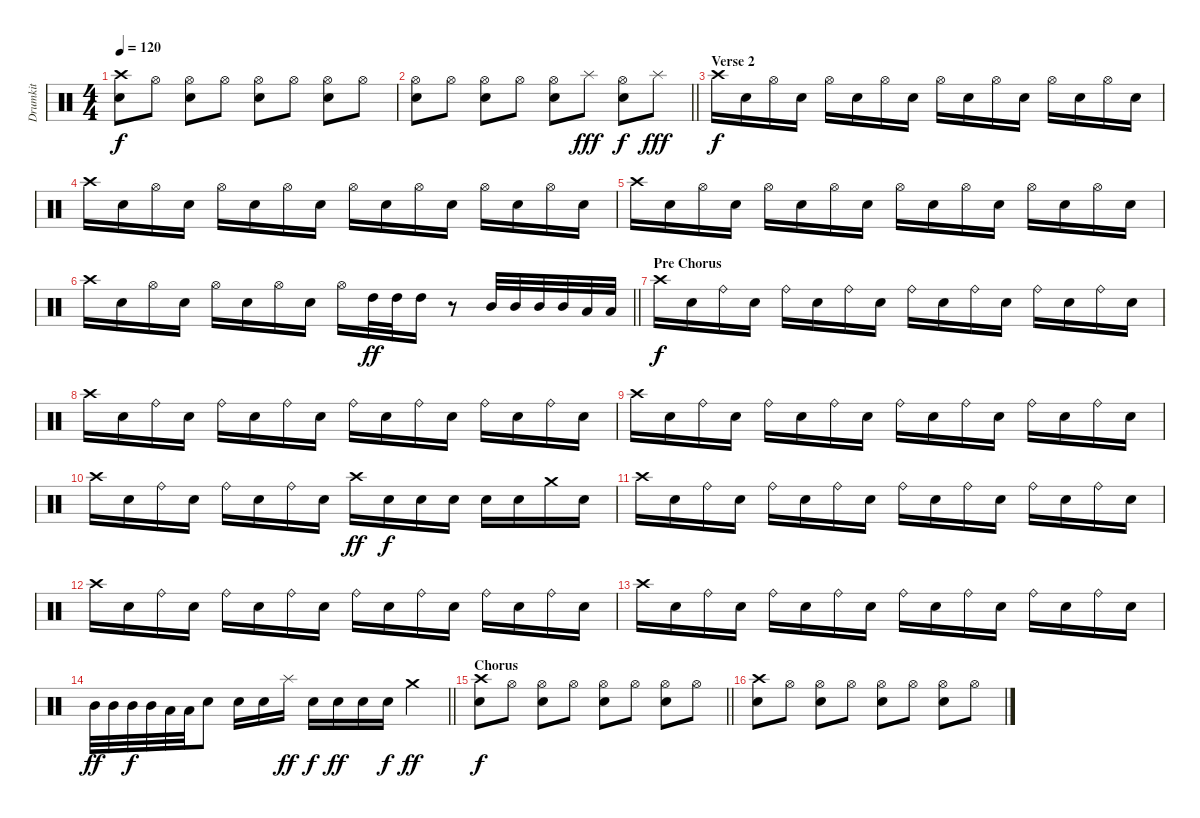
\track ("Drumkit" "Drumkit") {instrument percussion}
\staff {score}
\articulation defaults
\ts (4 4)
\tempo 120
\clef neutral
\ks c
("Crash high (hit)" "Electric Snare (hit)").8{dy f} "Hi-Hat (open)".8 ("Hi-Hat (open)" "Electric Snare (hit)").8 "Hi-Hat (open)".8 ("Hi-Hat (open)" "Electric Snare (hit)").8 "Hi-Hat (open)".8 ("Hi-Hat (open)" "Electric Snare (hit)").8 "Hi-Hat (open)".8 |
\barLineRight lightlight
("Hi-Hat (open)" "Electric Snare (hit)").8 "Hi-Hat (open)".8 ("Hi-Hat (open)" "Electric Snare (hit)").8 "Hi-Hat (open)".8 ("Hi-Hat (open)" "Electric Snare (hit)").8 "Splash (hit)".8{dy fff} ("Hi-Hat (open)" "Electric Snare (hit)").8{dy f} "Splash (hit)".8{dy fff} |
\section ("" "Verse 2")
"Crash high (hit)".16{dy f} "Electric Snare (hit)".16 "Hi-Hat (open)".16 "Electric Snare (hit)".16 "Hi-Hat (open)".16 "Electric Snare (hit)".16 "Hi-Hat (open)".16 "Electric Snare (hit)".16 "Hi-Hat (open)".16 "Electric Snare (hit)".16 "Hi-Hat (open)".16 "Electric Snare (hit)".16 "Hi-Hat (open)".16 "Electric Snare (hit)".16 "Hi-Hat (open)".16 "Electric Snare (hit)".16 |
"Crash high (hit)".16 "Electric Snare (hit)".16 "Hi-Hat (open)".16 "Electric Snare (hit)".16 "Hi-Hat (open)".16 "Electric Snare (hit)".16 "Hi-Hat (open)".16 "Electric Snare (hit)".16 "Hi-Hat (open)".16 "Electric Snare (hit)".16 "Hi-Hat (open)".16 "Electric Snare (hit)".16 "Hi-Hat (open)".16 "Electric Snare (hit)".16 "Hi-Hat (open)".16 "Electric Snare (hit)".16 |
"Crash high (hit)".16 "Electric Snare (hit)".16 "Hi-Hat (open)".16 "Electric Snare (hit)".16 "Hi-Hat (open)".16 "Electric Snare (hit)".16 "Hi-Hat (open)".16 "Electric Snare (hit)".16 "Hi-Hat (open)".16 "Electric Snare (hit)".16 "Hi-Hat (open)".16 "Electric Snare (hit)".16 "Hi-Hat (open)".16 "Electric Snare (hit)".16 "Hi-Hat (open)".16 "Electric Snare (hit)".16 |
\barLineRight lightlight "Crash high (hit)".16 "Electric Snare (hit)".16 "Hi-Hat (open)".16 "Electric Snare (hit)".16 "Hi-Hat (open)".16 "Electric Snare (hit)".16 "Hi-Hat (open)".16 "Electric Snare (hit)".16 "Hi-Hat (open)".16 "High Tom (hit)".32{dy ff} "High Tom (hit)".32 "High Tom (hit)".16
r.8 "Mid Tom (hit)".32 "Mid Tom (hit)".32 "Mid Tom (hit)".32 "Mid Tom (hit)".32 "Low Tom (hit)".32 "Low Tom (hit)".32 |
\section ("" "Pre Chorus")
"Crash high (hit)".16{dy f} "Electric Snare (hit)".16 "Ride (bell)".16 "Electric Snare (hit)".16 "Ride (bell)".16 "Electric Snare (hit)".16 "Ride (bell)".16 "Electric Snare (hit)".16 "Ride (bell)".16 "Electric Snare (hit)".16 "Ride (bell)".16 "Electric Snare (hit)".16 "Ride (bell)".16 "Electric Snare (hit)".16 "Ride (bell)".16 "Electric Snare (hit)".16 |
"Crash high (hit)".16 "Electric Snare (hit)".16 "Ride (bell)".16 "Electric Snare (hit)".16 "Ride (bell)".16 "Electric Snare (hit)".16 "Ride (bell)".16 "Electric Snare (hit)".16 "Ride (bell)".16 "Electric Snare (hit)".16 "Ride (bell)".16 "Electric Snare (hit)".16 "Ride (bell)".16 "Electric Snare (hit)".16 "Ride (bell)".16 "Electric Snare (hit)".16 |
"Crash high (hit)".16 "Electric Snare (hit)".16 "Ride (bell)".16 "Electric Snare (hit)".16 "Ride (bell)".16 "Electric Snare (hit)".16 "Ride (bell)".16 "Electric Snare (hit)".16 "Ride (bell)".16 "Electric Snare (hit)".16 "Ride (bell)".16 "Electric Snare (hit)".16 "Ride (bell)".16 "Electric Snare (hit)".16 "Ride (bell)".16 "Electric Snare (hit)".16 |
"Crash high (hit)".16 "Electric Snare (hit)".16 "Ride (bell)".16 "Electric Snare (hit)".16 "Ride (bell)".16 "Electric Snare (hit)".16 "Ride (bell)".16 "Electric Snare (hit)".16 "Crash high (hit)".16{dy ff} "Electric Snare (hit)".16{dy f} "Electric Snare (hit)".16 "Electric Snare (hit)".16 "Electric Snare (hit)".16 "Electric Snare (hit)".16 "Crash medium (hit)".16 "Electric Snare (hit)".16 |
"Crash high (hit)".16 "Electric Snare (hit)".16 "Ride (bell)".16 "Electric Snare (hit)".16 "Ride (bell)".16 "Electric Snare (hit)".16 "Ride (bell)".16 "Electric Snare (hit)".16 "Ride (bell)".16 "Electric Snare (hit)".16 "Ride (bell)".16 "Electric Snare (hit)".16 "Ride (bell)".16 "Electric Snare (hit)".16 "Ride (bell)".16 "Electric Snare (hit)".16 |
"Crash high (hit)".16 "Electric Snare (hit)".16 "Ride (bell)".16 "Electric Snare (hit)".16 "Ride (bell)".16 "Electric Snare (hit)".16 "Ride (bell)".16 "Electric Snare (hit)".16 "Ride (bell)".16 "Electric Snare (hit)".16 "Ride (bell)".16 "Electric Snare (hit)".16 "Ride (bell)".16 "Electric Snare (hit)".16 "Ride (bell)".16 "Electric Snare (hit)".16 |
"Crash high (hit)".16 "Electric Snare (hit)".16 "Ride (bell)".16 "Electric Snare (hit)".16 "Ride (bell)".16 "Electric Snare (hit)".16 "Ride (bell)".16 "Electric Snare (hit)".16 "Ride (bell)".16 "Electric Snare (hit)".16 "Ride (bell)".16 "Electric Snare (hit)".16 "Ride (bell)".16 "Electric Snare (hit)".16 "Ride (bell)".16 "Electric Snare (hit)".16 |
\barLineRight lightlight "Mid Tom (hit)".32{dy ff} "Mid Tom (hit)".32 "Mid Tom (hit)".32{dy f} "Mid Tom (hit)".32 "Low Tom (hit)".32 "Low Tom (hit)".32 "Electric Snare (hit)".8 "Electric Snare (hit)".16 "Electric Snare (hit)".16 "Splash (hit)".16{dy ff} "Electric Snare (hit)".16{dy f} "Electric Snare (hit)".16{dy ff} "Electric Snare (hit)".16 "Electric Snare (hit)".16{dy f} "Crash medium (hit)".4{dy ff}
|
\section ("" "Chorus")
\barLineRight lightlight
("Crash high (hit)" "Electric Snare (hit)").8{dy f} "Hi-Hat (open)".8 ("Hi-Hat (open)" "Electric Snare (hit)").8 "Hi-Hat (open)".8 ("Hi-Hat (open)" "Electric Snare (hit)").8 "Hi-Hat (open)".8 ("Hi-Hat (open)" "Electric Snare (hit)").8 "Hi-Hat (open)".8 |
("Crash high (hit)" "Electric Snare (hit)").8 "Hi-Hat (open)".8 ("Hi-Hat (open)" "Electric Snare (hit)").8 "Hi-Hat (open)".8 ("Hi-Hat (open)" "Electric Snare (hit)").8 "Hi-Hat (open)".8 ("Hi-Hat (open)" "Electric Snare (hit)").8 "Hi-Hat (open)".8
